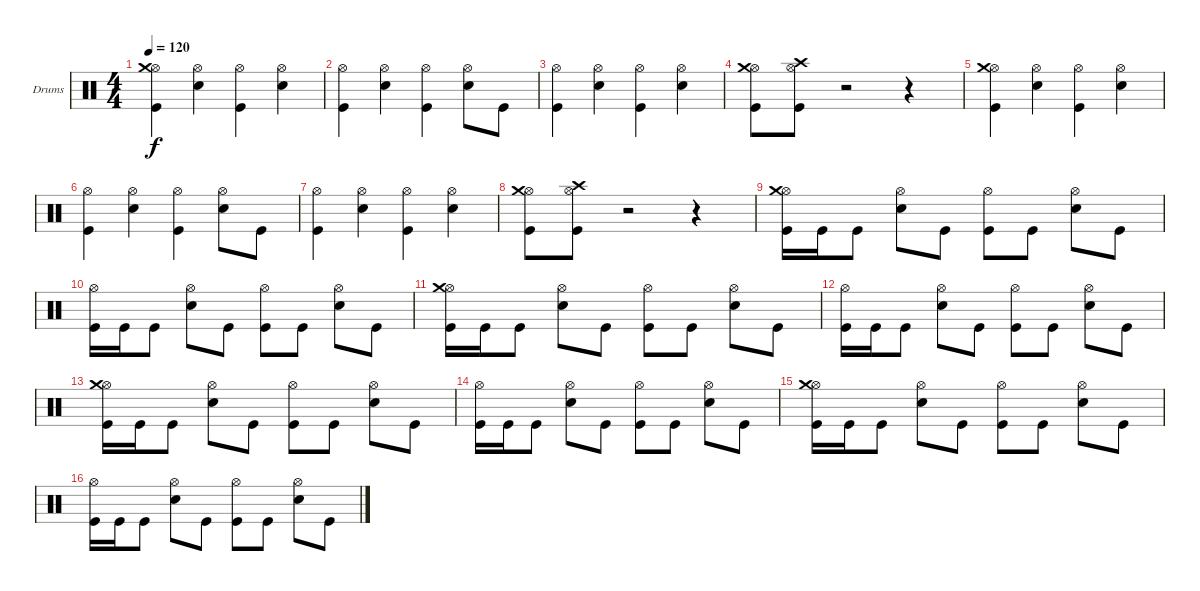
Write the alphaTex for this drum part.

\defaultSystemsLayout 4
\bracketExtendMode groupsimilarinstruments
\firstSystemTrackNameOrientation horizontal
\otherSystemsTrackNameOrientation horizontal
\track ("Drumkit" "Drums") {instrument percussion}
\staff {score}
\articulation defaults
\ts (4 4)
\tempo 120
\clef neutral
\ks c
("Kick (hit)" "Hi-Hat (open)" "Crash medium (hit)").4{dy f} ("Snare (hit) 2" "Hi-Hat (open)").4 ("Kick (hit)" "Hi-Hat (open)").4 ("Snare (hit) 2" "Hi-Hat (open)").4 |
("Kick (hit)" "Hi-Hat (open)").4 ("Snare (hit) 2" "Hi-Hat (open)").4 ("Kick (hit)" "Hi-Hat (open)").4 ("Snare (hit) 2" "Hi-Hat (open)").8 "Kick (hit)".8 |
("Kick (hit)" "Hi-Hat (open)").4 ("Snare (hit) 2" "Hi-Hat (open)").4 ("Kick (hit)" "Hi-Hat (open)").4 ("Snare (hit) 2" "Hi-Hat (open)").4 |
("Kick (hit)" "Hi-Hat (open)" "Crash medium (hit)").8 ("Kick (hit)" "Hi-Hat (open)" "Crash high (hit)").8 r.2 r.4 |
("Kick (hit)" "Hi-Hat (open)" "Crash medium (hit)").4 ("Snare (hit) 2" "Hi-Hat (open)").4 ("Kick (hit)" "Hi-Hat (open)").4 ("Snare (hit) 2" "Hi-Hat (open)").4 |
("Kick (hit)" "Hi-Hat (open)").4 ("Snare (hit) 2" "Hi-Hat (open)").4 ("Kick (hit)" "Hi-Hat (open)").4 ("Snare (hit) 2" "Hi-Hat (open)").8 "Kick (hit)".8 |
("Kick (hit)" "Hi-Hat (open)").4 ("Snare (hit) 2" "Hi-Hat (open)").4 ("Kick (hit)" "Hi-Hat (open)").4 ("Snare (hit) 2" "Hi-Hat (open)").4 |
("Kick (hit)" "Hi-Hat (open)" "Crash medium (hit)").8 ("Kick (hit)" "Hi-Hat (open)" "Crash high (hit)").8 r.2 r.4 |
("Kick (hit)" "Hi-Hat (open)" "Crash medium (hit)").16 "Kick (hit)".16 "Kick (hit)".8 ("Snare (hit) 2" "Hi-Hat (open)").8 "Kick (hit)".8 ("Kick (hit)" "Hi-Hat (open)").8 "Kick (hit)".8 ("Snare (hit) 2" "Hi-Hat (open)").8 "Kick (hit)".8 |
("Kick (hit)" "Hi-Hat (open)").16 "Kick (hit)".16 "Kick (hit)".8 ("Snare (hit) 2" "Hi-Hat (open)").8 "Kick (hit)".8 ("Kick (hit)" "Hi-Hat (open)").8 "Kick (hit)".8 ("Snare (hit) 2" "Hi-Hat (open)").8 "Kick (hit)".8 |
("Kick (hit)" "Hi-Hat (open)" "Crash medium (hit)").16 "Kick (hit)".16 "Kick (hit)".8 ("Snare (hit) 2" "Hi-Hat (open)").8 "Kick (hit)".8 ("Kick (hit)" "Hi-Hat (open)").8 "Kick (hit)".8 ("Snare (hit) 2" "Hi-Hat (open)").8 "Kick (hit)".8 |
("Kick (hit)" "Hi-Hat (open)").16 "Kick (hit)".16 "Kick (hit)".8 ("Snare (hit) 2" "Hi-Hat (open)").8 "Kick (hit)".8 ("Kick (hit)" "Hi-Hat (open)").8 "Kick (hit)".8 ("Snare (hit) 2" "Hi-Hat (open)").8 "Kick (hit)".8 |
("Kick (hit)" "Hi-Hat (open)" "Crash medium (hit)").16 "Kick (hit)".16 "Kick (hit)".8 ("Snare (hit) 2" "Hi-Hat (open)").8 "Kick (hit)".8 ("Kick (hit)" "Hi-Hat (open)").8 "Kick (hit)".8 ("Snare (hit) 2" "Hi-Hat (open)").8 "Kick (hit)".8 |
("Kick (hit)" "Hi-Hat (open)").16 "Kick (hit)".16 "Kick (hit)".8 ("Snare (hit) 2" "Hi-Hat (open)").8 "Kick (hit)".8 ("Kick (hit)" "Hi-Hat (open)").8 "Kick (hit)".8 ("Snare (hit) 2" "Hi-Hat (open)").8 "Kick (hit)".8 |
("Kick (hit)" "Hi-Hat (open)" "Crash medium (hit)").16 "Kick (hit)".16 "Kick (hit)".8 ("Snare (hit) 2" "Hi-Hat (open)").8 "Kick (hit)".8 ("Kick (hit)" "Hi-Hat (open)").8 "Kick (hit)".8 ("Snare (hit) 2" "Hi-Hat (open)").8 "Kick (hit)".8 |
("Kick (hit)" "Hi-Hat (open)").16 "Kick (hit)".16 "Kick (hit)".8 ("Snare (hit) 2" "Hi-Hat (open)").8 "Kick (hit)".8 ("Kick (hit)" "Hi-Hat (open)").8 "Kick (hit)".8 ("Snare (hit) 2" "Hi-Hat (open)").8 "Kick (hit)".8
